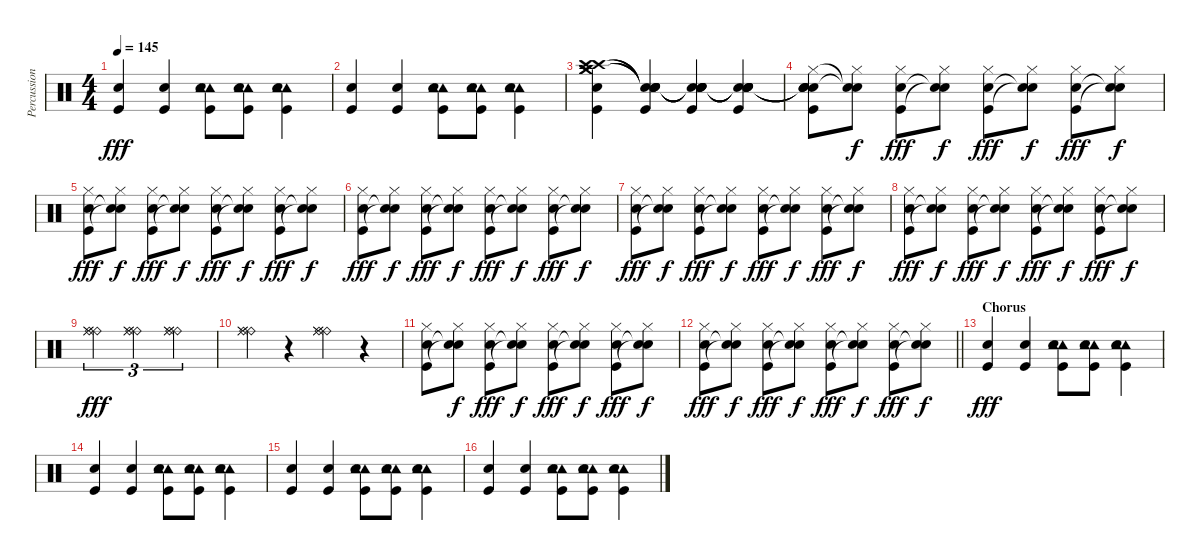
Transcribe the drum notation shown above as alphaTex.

\track ("Percussion" "Percussion") {instrument percussion}
\staff {score}
\articulation defaults
\ts (4 4)
\tempo 145
\clef neutral
\ks c
("Snare (hit) 2" "Kick (hit)").4{dy fff} ("Snare (hit) 2" "Kick (hit)").4 ("Tambourine (hit)" "Tambourine (hit)" "Snare (hit) 2" "Kick (hit)").8 ("Tambourine (hit)" "Tambourine (hit)" "Snare (hit) 2" "Kick (hit)").8 ("Tambourine (hit)" "Tambourine (hit)" "Snare (hit) 2" "Kick (hit)").4 |
("Snare (hit) 2" "Kick (hit)").4 ("Snare (hit) 2" "Kick (hit)").4 ("Tambourine (hit)" "Tambourine (hit)" "Snare (hit) 2" "Kick (hit)").8 ("Tambourine (hit)" "Tambourine (hit)" "Snare (hit) 2" "Kick (hit)").8 ("Tambourine (hit)" "Tambourine (hit)" "Snare (hit) 2" "Kick (hit)").4 |
("Crash medium (hit)" "Crash high (hit)" "Snare (hit) 2" "Kick (hit)" "Crash high (hit)" "Crash medium (hit)").4 ("Snare (hit)"{t} "Snare (hit)"{t} "Snare (hit) 2" "Kick (hit)" "Snare (hit)"{t} "Snare (hit)"{t}).4 ("Snare (hit)"{t} "Snare (hit)"{t} "Snare (hit) 2" "Kick (hit)" "Snare (hit)"{t} "Snare (hit)"{t}).4 ("Snare (hit)"{t} "Snare (hit)"{t} "Snare (hit) 2" "Kick (hit)" "Snare (hit)"{t} "Snare (hit)"{t}).4 |
("Snare (hit)"{t} "Hi-Hat (closed)" "Snare (hit) 2" "Kick (hit)" "Snare (hit)"{t} "Snare (hit)"{t}).8 ("Hi-Hat (closed)" "Snare (hit)"{t} "Snare (hit)"{t}).8{dy f} ("Hi-Hat (closed)" "Snare (hit) 2" "Kick (hit)").8{dy fff} ("Hi-Hat (closed)" "Snare (hit)"{t} "Snare (hit)"{t}).8{dy f} ("Hi-Hat (closed)" "Snare (hit) 2" "Kick (hit)").8{dy fff} ("Hi-Hat (closed)" "Snare (hit)"{t} "Snare (hit)"{t}).8{dy f} ("Hi-Hat (closed)" "Snare (hit) 2" "Kick (hit)").8{dy fff} ("Hi-Hat (closed)" "Snare (hit)"{t} "Snare (hit)"{t}).8{dy f} |
("Hi-Hat (closed)" "Snare (hit) 2" "Kick (hit)").8{dy fff} ("Hi-Hat (closed)" "Snare (hit)"{t} "Snare (hit)"{t}).8{dy f} ("Hi-Hat (closed)" "Snare (hit) 2" "Kick (hit)").8{dy fff} ("Hi-Hat (closed)" "Snare (hit)"{t} "Snare (hit)"{t}).8{dy f} ("Hi-Hat (closed)" "Snare (hit) 2" "Kick (hit)").8{dy fff} ("Hi-Hat (closed)" "Snare (hit)"{t} "Snare (hit)"{t}).8{dy f} ("Hi-Hat (closed)" "Snare (hit) 2" "Kick (hit)").8{dy fff} ("Hi-Hat (closed)" "Snare (hit)"{t} "Snare (hit)"{t}).8{dy f} |
("Hi-Hat (closed)" "Snare (hit) 2" "Kick (hit)").8{dy fff} ("Hi-Hat (closed)" "Snare (hit)"{t} "Snare (hit)"{t}).8{dy f} ("Hi-Hat (closed)" "Snare (hit) 2" "Kick (hit)").8{dy fff} ("Hi-Hat (closed)" "Snare (hit)"{t} "Snare (hit)"{t}).8{dy f} ("Hi-Hat (closed)" "Snare (hit) 2" "Kick (hit)").8{dy fff} ("Hi-Hat (closed)" "Snare (hit)"{t} "Snare (hit)"{t}).8{dy f} ("Hi-Hat (closed)" "Snare (hit) 2" "Kick (hit)").8{dy fff} ("Hi-Hat (closed)" "Snare (hit)"{t} "Snare (hit)"{t}).8{dy f} |
("Hi-Hat (closed)" "Snare (hit) 2" "Kick (hit)").8{dy fff} ("Hi-Hat (closed)" "Snare (hit)"{t} "Snare (hit)"{t}).8{dy f} ("Hi-Hat (closed)" "Snare (hit) 2" "Kick (hit)").8{dy fff} ("Hi-Hat (closed)" "Snare (hit)"{t} "Snare (hit)"{t}).8{dy f} ("Hi-Hat (closed)" "Snare (hit) 2" "Kick (hit)").8{dy fff} ("Hi-Hat (closed)" "Snare (hit)"{t} "Snare (hit)"{t}).8{dy f} ("Hi-Hat (closed)" "Snare (hit) 2" "Kick (hit)").8{dy fff} ("Hi-Hat (closed)" "Snare (hit)"{t} "Snare (hit)"{t}).8{dy f} |
("Hi-Hat (closed)" "Snare (hit) 2" "Kick (hit)").8{dy fff} ("Hi-Hat (closed)" "Snare (hit)"{t} "Snare (hit)"{t}).8{dy f} ("Hi-Hat (closed)" "Snare (hit) 2" "Kick (hit)").8{dy fff} ("Hi-Hat (closed)" "Snare (hit)"{t} "Snare (hit)"{t}).8{dy f} ("Hi-Hat (closed)" "Snare (hit) 2" "Kick (hit)").8{dy fff} ("Hi-Hat (closed)" "Snare (hit)"{t} "Snare (hit)"{t}).8{dy f} ("Hi-Hat (closed)" "Snare (hit) 2" "Kick (hit)").8{dy fff} ("Hi-Hat (closed)" "Snare (hit)"{t} "Snare (hit)"{t}).8{dy f} |
("Ride (bell)" "Ride (bell)" "Ride (middle)" "Ride (middle)").2{tu (3 2) dy fff volume 16} ("Ride (bell)" "Ride (bell)" "Ride (middle)" "Ride (middle)").2{tu (3 2)} ("Ride (bell)" "Ride (bell)" "Ride (middle)" "Ride (middle)").2{tu (3 2)} |
("Ride (bell)" "Ride (bell)" "Ride (middle)" "Ride (middle)").4 r.4 ("Ride (bell)" "Ride (bell)" "Ride (middle)" "Ride (middle)").4 r.4 |
("Hi-Hat (closed)" "Snare (hit) 2" "Kick (hit)").8{volume 12} ("Hi-Hat (closed)" "Snare (hit)"{t} "Snare (hit)"{t}).8{dy f} ("Hi-Hat (closed)" "Snare (hit) 2" "Kick (hit)").8{dy fff} ("Hi-Hat (closed)" "Snare (hit)"{t} "Snare (hit)"{t}).8{dy f} ("Hi-Hat (closed)" "Snare (hit) 2" "Kick (hit)").8{dy fff} ("Hi-Hat (closed)" "Snare (hit)"{t} "Snare (hit)"{t}).8{dy f} ("Hi-Hat (closed)" "Snare (hit) 2" "Kick (hit)").8{dy fff} ("Hi-Hat (closed)" "Snare (hit)"{t} "Snare (hit)"{t}).8{dy f} |
\barLineRight lightlight
("Hi-Hat (closed)" "Snare (hit) 2" "Kick (hit)").8{dy fff} ("Hi-Hat (closed)" "Snare (hit)"{t} "Snare (hit)"{t}).8{dy f} ("Hi-Hat (closed)" "Snare (hit) 2" "Kick (hit)").8{dy fff} ("Hi-Hat (closed)" "Snare (hit)"{t} "Snare (hit)"{t}).8{dy f} ("Hi-Hat (closed)" "Snare (hit) 2" "Kick (hit)").8{dy fff} ("Hi-Hat (closed)" "Snare (hit)"{t} "Snare (hit)"{t}).8{dy f} ("Hi-Hat (closed)" "Snare (hit) 2" "Kick (hit)").8{dy fff} ("Hi-Hat (closed)" "Snare (hit)"{t} "Snare (hit)"{t}).8{dy f} |
\section ("" "Chorus")
("Snare (hit) 2" "Kick (hit)").4{dy fff} ("Snare (hit) 2" "Kick (hit)").4 ("Tambourine (hit)" "Tambourine (hit)" "Snare (hit) 2" "Kick (hit)").8 ("Tambourine (hit)" "Tambourine (hit)" "Snare (hit) 2" "Kick (hit)").8 ("Tambourine (hit)" "Tambourine (hit)" "Snare (hit) 2" "Kick (hit)").4 |
("Snare (hit) 2" "Kick (hit)").4 ("Snare (hit) 2" "Kick (hit)").4 ("Tambourine (hit)" "Tambourine (hit)" "Snare (hit) 2" "Kick (hit)").8 ("Tambourine (hit)" "Tambourine (hit)" "Snare (hit) 2" "Kick (hit)").8 ("Tambourine (hit)" "Tambourine (hit)" "Snare (hit) 2" "Kick (hit)").4 |
("Snare (hit) 2" "Kick (hit)").4 ("Snare (hit) 2" "Kick (hit)").4 ("Tambourine (hit)" "Tambourine (hit)" "Snare (hit) 2" "Kick (hit)").8 ("Tambourine (hit)" "Tambourine (hit)" "Snare (hit) 2" "Kick (hit)").8 ("Tambourine (hit)" "Tambourine (hit)" "Snare (hit) 2" "Kick (hit)").4 |
("Snare (hit) 2" "Kick (hit)").4 ("Snare (hit) 2" "Kick (hit)").4 ("Tambourine (hit)" "Tambourine (hit)" "Snare (hit) 2" "Kick (hit)").8 ("Tambourine (hit)" "Tambourine (hit)" "Snare (hit) 2" "Kick (hit)").8 ("Tambourine (hit)" "Tambourine (hit)" "Snare (hit) 2" "Kick (hit)").4
